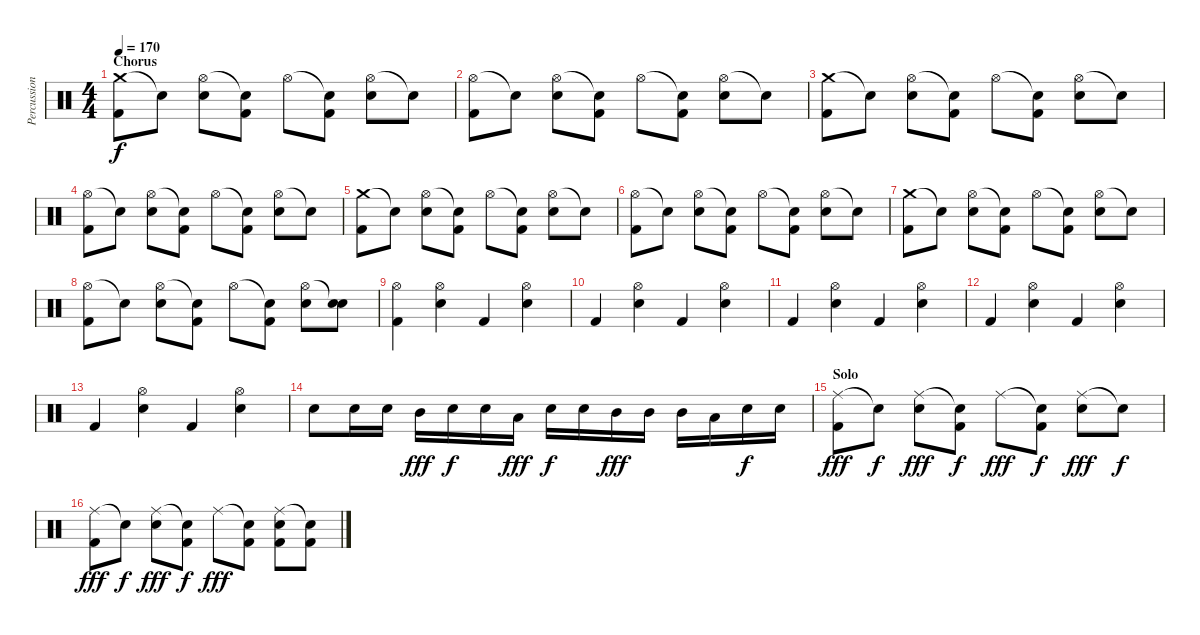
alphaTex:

\track ("Percussions" "Percussion") {instrument percussion}
\staff {score}
\articulation defaults
\ts (4 4)
\section ("" "Chorus")
\tempo 170
\clef neutral
\ks c
("Crash medium (hit)" "Kick (hit) 2").8{dy f} "Snare (hit)"{t}.8 ("Hi-Hat (open)" "Snare (hit) 2").8 ("Snare (hit)"{t} "Kick (hit) 2").8 "Hi-Hat (open)".8 ("Snare (hit)"{t} "Kick (hit) 2").8 ("Hi-Hat (open)" "Snare (hit) 2").8 "Snare (hit)"{t}.8 |
("Hi-Hat (open)" "Kick (hit) 2").8 "Snare (hit)"{t}.8 ("Hi-Hat (open)" "Snare (hit) 2").8 ("Snare (hit)"{t} "Kick (hit) 2").8 "Hi-Hat (open)".8 ("Snare (hit)"{t} "Kick (hit) 2").8 ("Hi-Hat (open)" "Snare (hit) 2").8 "Snare (hit)"{t}.8 |
("Crash medium (hit)" "Kick (hit) 2").8 "Snare (hit)"{t}.8 ("Hi-Hat (open)" "Snare (hit) 2").8 ("Snare (hit)"{t} "Kick (hit) 2").8 "Hi-Hat (open)".8 ("Snare (hit)"{t} "Kick (hit) 2").8 ("Hi-Hat (open)" "Snare (hit) 2").8 "Snare (hit)"{t}.8 |
("Hi-Hat (open)" "Kick (hit) 2").8 "Snare (hit)"{t}.8 ("Hi-Hat (open)" "Snare (hit) 2").8 ("Snare (hit)"{t} "Kick (hit) 2").8 "Hi-Hat (open)".8 ("Snare (hit)"{t} "Kick (hit) 2").8 ("Hi-Hat (open)" "Snare (hit) 2").8 "Snare (hit)"{t}.8 |
("Crash medium (hit)" "Kick (hit) 2").8 "Snare (hit)"{t}.8 ("Hi-Hat (open)" "Snare (hit) 2").8 ("Snare (hit)"{t} "Kick (hit) 2").8 "Hi-Hat (open)".8 ("Snare (hit)"{t} "Kick (hit) 2").8 ("Hi-Hat (open)" "Snare (hit) 2").8 "Snare (hit)"{t}.8 |
("Hi-Hat (open)" "Kick (hit) 2").8 "Snare (hit)"{t}.8 ("Hi-Hat (open)" "Snare (hit) 2").8 ("Snare (hit)"{t} "Kick (hit) 2").8 "Hi-Hat (open)".8 ("Snare (hit)"{t} "Kick (hit) 2").8 ("Hi-Hat (open)" "Snare (hit) 2").8 "Snare (hit)"{t}.8 |
("Crash medium (hit)" "Kick (hit) 2").8 "Snare (hit)"{t}.8 ("Hi-Hat (open)" "Snare (hit) 2").8 ("Snare (hit)"{t} "Kick (hit) 2").8 "Hi-Hat (open)".8 ("Snare (hit)"{t} "Kick (hit) 2").8 ("Hi-Hat (open)" "Snare (hit) 2").8 "Snare (hit)"{t}.8 |
("Hi-Hat (open)" "Kick (hit) 2").8 "Snare (hit)"{t}.8 ("Hi-Hat (open)" "Snare (hit) 2").8 ("Snare (hit)"{t} "Kick (hit) 2").8 "Hi-Hat (open)".8 ("Snare (hit)"{t} "Kick (hit) 2").8 ("Hi-Hat (open)" "Snare (hit) 2").8 ("Snare (hit)"{t} "Snare (hit) 2").8 |
("Hi-Hat (open)" "Kick (hit) 2").4 ("Hi-Hat (open)" "Snare (hit) 2").4 "Kick (hit) 2".4 ("Hi-Hat (open)" "Snare (hit) 2").4 |
"Kick (hit) 2".4 ("Hi-Hat (open)" "Snare (hit) 2").4 "Kick (hit) 2".4 ("Hi-Hat (open)" "Snare (hit) 2").4 |
"Kick (hit) 2".4 ("Hi-Hat (open)" "Snare (hit) 2").4 "Kick (hit) 2".4 ("Hi-Hat (open)" "Snare (hit) 2").4 |
"Kick (hit) 2".4 ("Hi-Hat (open)" "Snare (hit) 2").4 "Kick (hit) 2".4 ("Hi-Hat (open)" "Snare (hit) 2").4 |
"Kick (hit) 2".4 ("Hi-Hat (open)" "Snare (hit) 2").4 "Kick (hit) 2".4 ("Hi-Hat (open)" "Snare (hit) 2").4 |
"Snare (hit) 2".8 "Snare (hit) 2".16 "Snare (hit) 2".16 "Mid Tom (hit)".16{dy fff} "Snare (hit) 2".16{dy f} "Snare (hit) 2".16 "Low Tom (hit)".16{dy fff} "Snare (hit) 2".16{dy f} "Snare (hit) 2".16 "Mid Tom (hit)".16{dy fff} "Mid Tom (hit)".16 "Mid Tom (hit)".16 "Low Tom (hit)".16 "Snare (hit) 2".16{dy f} "Snare (hit) 2".16 |
\section ("" "Solo")
("Ride (middle)" "Kick (hit) 2").8{dy fff} "Snare (hit)"{t}.8{dy f} ("Ride (middle)" "Snare (hit) 2").8{dy fff} ("Snare (hit)"{t} "Kick (hit) 2").8{dy f} "Ride (middle)".8{dy fff} ("Snare (hit)"{t} "Kick (hit) 2").8{dy f} ("Ride (middle)" "Snare (hit) 2").8{dy fff} "Snare (hit)"{t}.8{dy f} |
("Ride (middle)" "Kick (hit) 2").8{dy fff} "Snare (hit)"{t}.8{dy f} ("Ride (middle)" "Snare (hit) 2").8{dy fff} ("Snare (hit)"{t} "Kick (hit) 2").8{dy f} "Ride (middle)".8{dy fff} ("Snare (hit)"{t} "Kick (hit) 2").8 ("Ride (middle)" "Snare (hit) 2" "Kick (hit) 2").8 ("Snare (hit)"{t} "Kick (hit) 2").8
